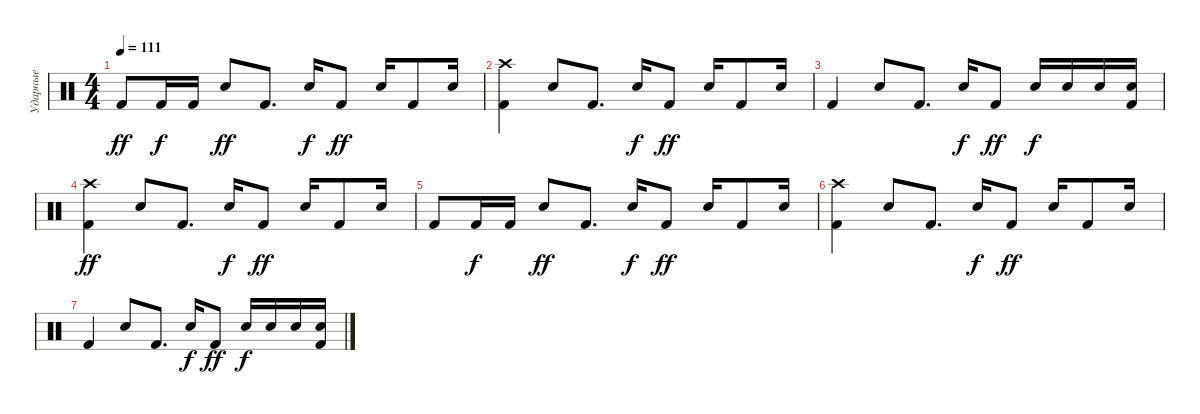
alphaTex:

\track ("Ударные" "Ударные") {instrument percussion}
\staff {score}
\articulation defaults
\ts (4 4)
\tempo 111
\clef neutral
\ks c "Kick (hit) 2".8{dy ff} "Kick (hit) 2".16{dy f} "Kick (hit) 2".16 "Snare (hit) 2".8{dy ff} "Kick (hit) 2".8{d} "Snare (hit) 2".16{dy f} "Kick (hit) 2".8{dy ff} "Snare (hit) 2".16 "Kick (hit) 2".8 "Snare (hit) 2".16
|
("Crash high (hit)" "Kick (hit) 2").4 "Snare (hit) 2".8 "Kick (hit) 2".8{d} "Snare (hit) 2".16{dy f} "Kick (hit) 2".8{dy ff} "Snare (hit) 2".16 "Kick (hit) 2".8 "Snare (hit) 2".16 |
"Kick (hit) 2".4 "Snare (hit) 2".8 "Kick (hit) 2".8{d} "Snare (hit) 2".16{dy f} "Kick (hit) 2".8{dy ff} "Electric Snare (hit)".16{dy f} "Electric Snare (hit)".16 "Snare (hit) 2".16 ("Snare (hit) 2" "Kick (hit) 2").16 |
("Crash high (hit)" "Kick (hit) 2").4{dy ff} "Snare (hit) 2".8 "Kick (hit) 2".8{d} "Snare (hit) 2".16{dy f} "Kick (hit) 2".8{dy ff} "Snare (hit) 2".16 "Kick (hit) 2".8 "Snare (hit) 2".16 |
"Kick (hit) 2".8 "Kick (hit) 2".16{dy f} "Kick (hit) 2".16 "Snare (hit) 2".8{dy ff} "Kick (hit) 2".8{d} "Snare (hit) 2".16{dy f} "Kick (hit) 2".8{dy ff} "Snare (hit) 2".16 "Kick (hit) 2".8 "Snare (hit) 2".16 |
("Crash high (hit)" "Kick (hit) 2").4 "Snare (hit) 2".8 "Kick (hit) 2".8{d} "Snare (hit) 2".16{dy f} "Kick (hit) 2".8{dy ff} "Snare (hit) 2".16 "Kick (hit) 2".8 "Snare (hit) 2".16 |
"Kick (hit) 2".4 "Snare (hit) 2".8 "Kick (hit) 2".8{d} "Snare (hit) 2".16{dy f} "Kick (hit) 2".8{dy ff} "Electric Snare (hit)".16{dy f} "Electric Snare (hit)".16 "Snare (hit) 2".16 ("Snare (hit) 2" "Kick (hit) 2").16
